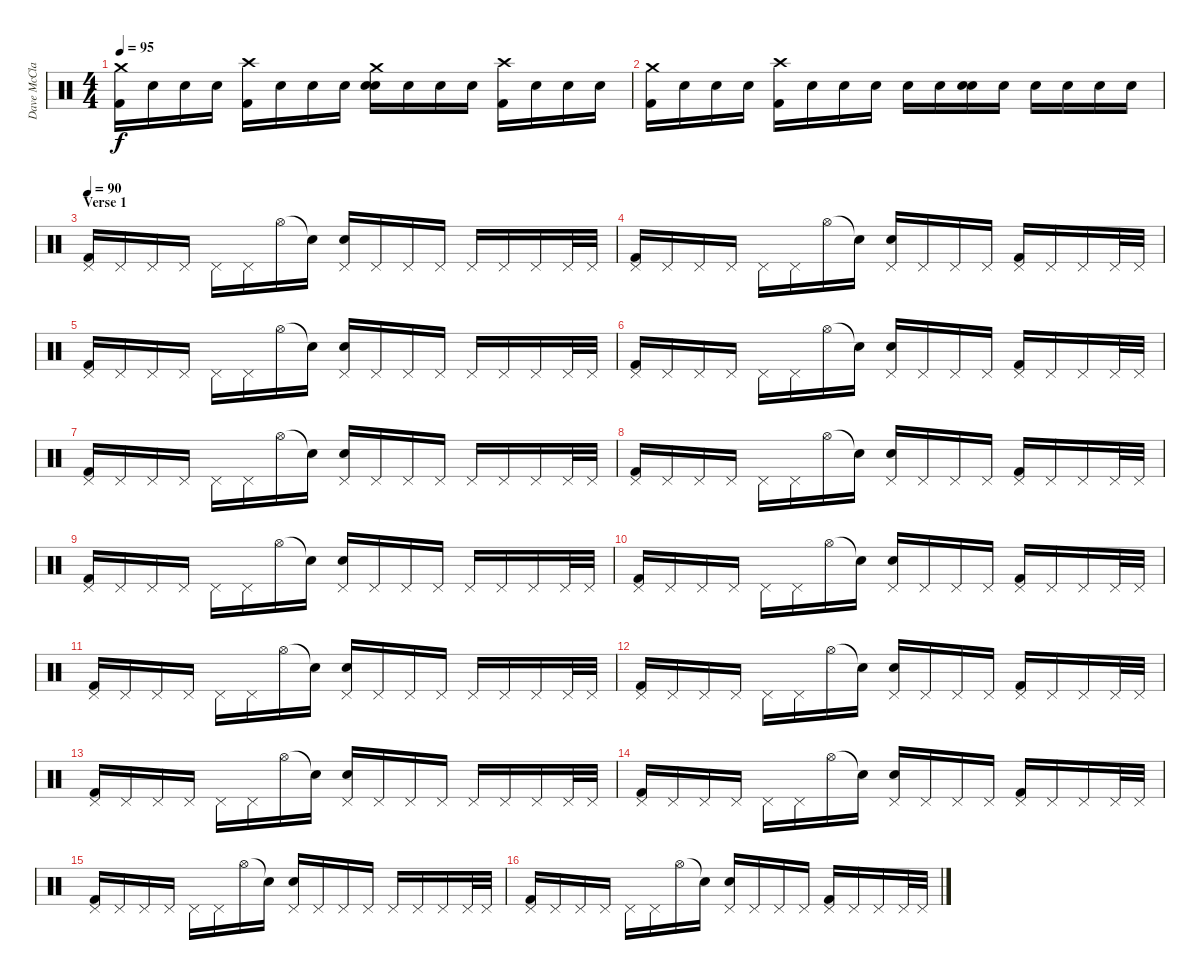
\track ("Dave McClain - Drums" "Dave McCla") {instrument percussion}
\staff {score}
\articulation defaults
\ts (4 4)
\tempo 95
\clef neutral
\ks c
("Crash medium (hit)" "Kick (hit) 2").16{dy f} "Snare (hit)".16 "Snare (hit)".16 "Snare (hit)".16 ("Crash high (hit)" "Kick (hit) 2").16 "Snare (hit)".16 "Snare (hit)".16 "Snare (hit)".16 ("Crash medium (hit)" "Electric Snare (hit)" "Snare (hit) 2").16 "Snare (hit)".16 "Snare (hit)".16 "Snare (hit)".16 ("Crash high (hit)" "Kick (hit) 2").16 "Snare (hit)".16 "Snare (hit)".16 "Snare (hit)".16 |
("Crash medium (hit)" "Kick (hit) 2").16 "Snare (hit)".16 "Snare (hit)".16 "Snare (hit)".16 ("Crash high (hit)" "Kick (hit) 2").16 "Snare (hit)".16 "Snare (hit)".16 "Snare (hit)".16 "Snare (hit) 2".16 "Snare (hit)".16 ("Electric Snare (hit)" "Snare (hit) 2").16 "Snare (hit)".16 "Snare (hit) 2".16 "Snare (hit) 2".16 "Snare (hit) 2".16 "Snare (hit) 2".16 |
\section ("" "Verse 1")
\tempo 90
("Pedal Hi-Hat (hit)" "Kick (hit) 2").16{volume 16 balance 8} "Pedal Hi-Hat (hit)".16 "Pedal Hi-Hat (hit)".16 "Pedal Hi-Hat (hit)".16 "Pedal Hi-Hat (hit)".16 "Pedal Hi-Hat (hit)".16 "Hi-Hat (open)".16 "Snare (hit)"{t}.16 ("Pedal Hi-Hat (hit)" "Electric Snare (hit)").16 "Pedal Hi-Hat (hit)".16 "Pedal Hi-Hat (hit)".16 "Pedal Hi-Hat (hit)".16 "Pedal Hi-Hat (hit)".16 "Pedal Hi-Hat (hit)".16 "Pedal Hi-Hat (hit)".16 "Pedal Hi-Hat (hit)".32 "Pedal Hi-Hat (hit)".32 |
("Pedal Hi-Hat (hit)" "Kick (hit) 2").16 "Pedal Hi-Hat (hit)".16 "Pedal Hi-Hat (hit)".16 "Pedal Hi-Hat (hit)".16 "Pedal Hi-Hat (hit)".16 "Pedal Hi-Hat (hit)".16 "Hi-Hat (open)".16 "Snare (hit)"{t}.16 ("Pedal Hi-Hat (hit)" "Electric Snare (hit)").16 "Pedal Hi-Hat (hit)".16 "Pedal Hi-Hat (hit)".16 "Pedal Hi-Hat (hit)".16 ("Pedal Hi-Hat (hit)" "Kick (hit) 2").16 "Pedal Hi-Hat (hit)".16 "Pedal Hi-Hat (hit)".16 "Pedal Hi-Hat (hit)".32 "Pedal Hi-Hat (hit)".32 |
("Pedal Hi-Hat (hit)" "Kick (hit) 2").16 "Pedal Hi-Hat (hit)".16 "Pedal Hi-Hat (hit)".16 "Pedal Hi-Hat (hit)".16 "Pedal Hi-Hat (hit)".16 "Pedal Hi-Hat (hit)".16 "Hi-Hat (open)".16 "Snare (hit)"{t}.16 ("Pedal Hi-Hat (hit)" "Electric Snare (hit)").16 "Pedal Hi-Hat (hit)".16 "Pedal Hi-Hat (hit)".16 "Pedal Hi-Hat (hit)".16 "Pedal Hi-Hat (hit)".16 "Pedal Hi-Hat (hit)".16 "Pedal Hi-Hat (hit)".16 "Pedal Hi-Hat (hit)".32 "Pedal Hi-Hat (hit)".32 |
("Pedal Hi-Hat (hit)" "Kick (hit) 2").16 "Pedal Hi-Hat (hit)".16 "Pedal Hi-Hat (hit)".16 "Pedal Hi-Hat (hit)".16 "Pedal Hi-Hat (hit)".16 "Pedal Hi-Hat (hit)".16 "Hi-Hat (open)".16 "Snare (hit)"{t}.16 ("Pedal Hi-Hat (hit)" "Electric Snare (hit)").16 "Pedal Hi-Hat (hit)".16 "Pedal Hi-Hat (hit)".16 "Pedal Hi-Hat (hit)".16 ("Pedal Hi-Hat (hit)" "Kick (hit) 2").16 "Pedal Hi-Hat (hit)".16 "Pedal Hi-Hat (hit)".16 "Pedal Hi-Hat (hit)".32 "Pedal Hi-Hat (hit)".32 |
("Pedal Hi-Hat (hit)" "Kick (hit) 2").16 "Pedal Hi-Hat (hit)".16 "Pedal Hi-Hat (hit)".16 "Pedal Hi-Hat (hit)".16 "Pedal Hi-Hat (hit)".16 "Pedal Hi-Hat (hit)".16 "Hi-Hat (open)".16 "Snare (hit)"{t}.16 ("Pedal Hi-Hat (hit)" "Electric Snare (hit)").16 "Pedal Hi-Hat (hit)".16 "Pedal Hi-Hat (hit)".16 "Pedal Hi-Hat (hit)".16 "Pedal Hi-Hat (hit)".16 "Pedal Hi-Hat (hit)".16 "Pedal Hi-Hat (hit)".16 "Pedal Hi-Hat (hit)".32 "Pedal Hi-Hat (hit)".32 |
("Pedal Hi-Hat (hit)" "Kick (hit) 2").16 "Pedal Hi-Hat (hit)".16 "Pedal Hi-Hat (hit)".16 "Pedal Hi-Hat (hit)".16 "Pedal Hi-Hat (hit)".16 "Pedal Hi-Hat (hit)".16 "Hi-Hat (open)".16 "Snare (hit)"{t}.16 ("Pedal Hi-Hat (hit)" "Electric Snare (hit)").16 "Pedal Hi-Hat (hit)".16 "Pedal Hi-Hat (hit)".16 "Pedal Hi-Hat (hit)".16 ("Pedal Hi-Hat (hit)" "Kick (hit) 2").16 "Pedal Hi-Hat (hit)".16 "Pedal Hi-Hat (hit)".16 "Pedal Hi-Hat (hit)".32 "Pedal Hi-Hat (hit)".32 |
("Pedal Hi-Hat (hit)" "Kick (hit) 2").16 "Pedal Hi-Hat (hit)".16 "Pedal Hi-Hat (hit)".16 "Pedal Hi-Hat (hit)".16 "Pedal Hi-Hat (hit)".16 "Pedal Hi-Hat (hit)".16 "Hi-Hat (open)".16 "Snare (hit)"{t}.16 ("Pedal Hi-Hat (hit)" "Electric Snare (hit)").16 "Pedal Hi-Hat (hit)".16 "Pedal Hi-Hat (hit)".16 "Pedal Hi-Hat (hit)".16 "Pedal Hi-Hat (hit)".16 "Pedal Hi-Hat (hit)".16 "Pedal Hi-Hat (hit)".16 "Pedal Hi-Hat (hit)".32 "Pedal Hi-Hat (hit)".32 |
("Pedal Hi-Hat (hit)" "Kick (hit) 2").16 "Pedal Hi-Hat (hit)".16 "Pedal Hi-Hat (hit)".16 "Pedal Hi-Hat (hit)".16 "Pedal Hi-Hat (hit)".16 "Pedal Hi-Hat (hit)".16 "Hi-Hat (open)".16 "Snare (hit)"{t}.16 ("Pedal Hi-Hat (hit)" "Electric Snare (hit)").16 "Pedal Hi-Hat (hit)".16 "Pedal Hi-Hat (hit)".16 "Pedal Hi-Hat (hit)".16 ("Pedal Hi-Hat (hit)" "Kick (hit) 2").16 "Pedal Hi-Hat (hit)".16 "Pedal Hi-Hat (hit)".16 "Pedal Hi-Hat (hit)".32 "Pedal Hi-Hat (hit)".32 |
("Pedal Hi-Hat (hit)" "Kick (hit) 2").16 "Pedal Hi-Hat (hit)".16 "Pedal Hi-Hat (hit)".16 "Pedal Hi-Hat (hit)".16 "Pedal Hi-Hat (hit)".16 "Pedal Hi-Hat (hit)".16 "Hi-Hat (open)".16 "Snare (hit)"{t}.16 ("Pedal Hi-Hat (hit)" "Electric Snare (hit)").16 "Pedal Hi-Hat (hit)".16 "Pedal Hi-Hat (hit)".16 "Pedal Hi-Hat (hit)".16 "Pedal Hi-Hat (hit)".16 "Pedal Hi-Hat (hit)".16 "Pedal Hi-Hat (hit)".16 "Pedal Hi-Hat (hit)".32 "Pedal Hi-Hat (hit)".32 |
("Pedal Hi-Hat (hit)" "Kick (hit) 2").16 "Pedal Hi-Hat (hit)".16 "Pedal Hi-Hat (hit)".16 "Pedal Hi-Hat (hit)".16 "Pedal Hi-Hat (hit)".16 "Pedal Hi-Hat (hit)".16 "Hi-Hat (open)".16 "Snare (hit)"{t}.16 ("Pedal Hi-Hat (hit)" "Electric Snare (hit)").16 "Pedal Hi-Hat (hit)".16 "Pedal Hi-Hat (hit)".16 "Pedal Hi-Hat (hit)".16 ("Pedal Hi-Hat (hit)" "Kick (hit) 2").16 "Pedal Hi-Hat (hit)".16 "Pedal Hi-Hat (hit)".16 "Pedal Hi-Hat (hit)".32 "Pedal Hi-Hat (hit)".32 |
("Pedal Hi-Hat (hit)" "Kick (hit) 2").16 "Pedal Hi-Hat (hit)".16 "Pedal Hi-Hat (hit)".16 "Pedal Hi-Hat (hit)".16 "Pedal Hi-Hat (hit)".16 "Pedal Hi-Hat (hit)".16 "Hi-Hat (open)".16 "Snare (hit)"{t}.16 ("Pedal Hi-Hat (hit)" "Electric Snare (hit)").16 "Pedal Hi-Hat (hit)".16 "Pedal Hi-Hat (hit)".16 "Pedal Hi-Hat (hit)".16 "Pedal Hi-Hat (hit)".16 "Pedal Hi-Hat (hit)".16 "Pedal Hi-Hat (hit)".16 "Pedal Hi-Hat (hit)".32 "Pedal Hi-Hat (hit)".32 |
("Pedal Hi-Hat (hit)" "Kick (hit) 2").16 "Pedal Hi-Hat (hit)".16 "Pedal Hi-Hat (hit)".16 "Pedal Hi-Hat (hit)".16 "Pedal Hi-Hat (hit)".16 "Pedal Hi-Hat (hit)".16 "Hi-Hat (open)".16 "Snare (hit)"{t}.16 ("Pedal Hi-Hat (hit)" "Electric Snare (hit)").16 "Pedal Hi-Hat (hit)".16 "Pedal Hi-Hat (hit)".16 "Pedal Hi-Hat (hit)".16 ("Pedal Hi-Hat (hit)" "Kick (hit) 2").16 "Pedal Hi-Hat (hit)".16 "Pedal Hi-Hat (hit)".16 "Pedal Hi-Hat (hit)".32 "Pedal Hi-Hat (hit)".32 |
("Pedal Hi-Hat (hit)" "Kick (hit) 2").16 "Pedal Hi-Hat (hit)".16 "Pedal Hi-Hat (hit)".16 "Pedal Hi-Hat (hit)".16 "Pedal Hi-Hat (hit)".16 "Pedal Hi-Hat (hit)".16 "Hi-Hat (open)".16 "Snare (hit)"{t}.16 ("Pedal Hi-Hat (hit)" "Electric Snare (hit)").16 "Pedal Hi-Hat (hit)".16 "Pedal Hi-Hat (hit)".16 "Pedal Hi-Hat (hit)".16 "Pedal Hi-Hat (hit)".16 "Pedal Hi-Hat (hit)".16 "Pedal Hi-Hat (hit)".16 "Pedal Hi-Hat (hit)".32 "Pedal Hi-Hat (hit)".32 |
("Pedal Hi-Hat (hit)" "Kick (hit) 2").16 "Pedal Hi-Hat (hit)".16 "Pedal Hi-Hat (hit)".16 "Pedal Hi-Hat (hit)".16 "Pedal Hi-Hat (hit)".16 "Pedal Hi-Hat (hit)".16 "Hi-Hat (open)".16 "Snare (hit)"{t}.16 ("Pedal Hi-Hat (hit)" "Electric Snare (hit)").16 "Pedal Hi-Hat (hit)".16 "Pedal Hi-Hat (hit)".16 "Pedal Hi-Hat (hit)".16 ("Pedal Hi-Hat (hit)" "Kick (hit) 2").16 "Pedal Hi-Hat (hit)".16 "Pedal Hi-Hat (hit)".16 "Pedal Hi-Hat (hit)".32 "Pedal Hi-Hat (hit)".32
